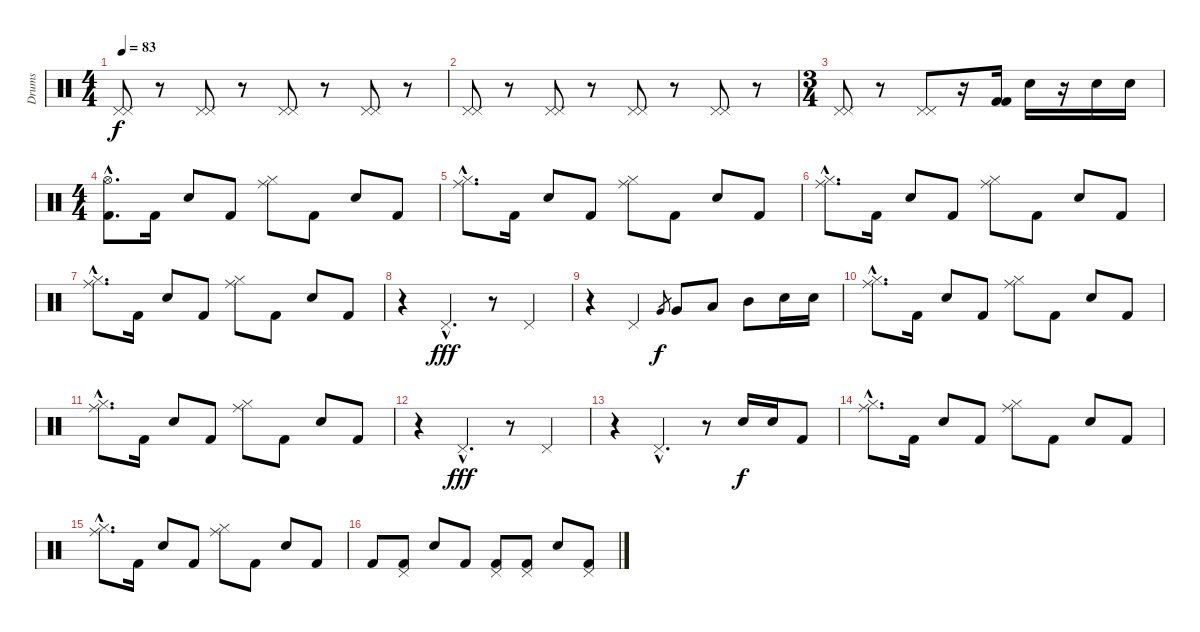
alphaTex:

\track ("Drums" "Drums") {instrument percussion}
\staff {score}
\articulation defaults
\ts (4 4)
\tempo 83
\clef neutral
\ks c
("Pedal Hi-Hat (hit)" "Pedal Hi-Hat (hit)").8{dy f} r.8 ("Pedal Hi-Hat (hit)" "Pedal Hi-Hat (hit)").8 r.8 ("Pedal Hi-Hat (hit)" "Pedal Hi-Hat (hit)").8 r.8 ("Pedal Hi-Hat (hit)" "Pedal Hi-Hat (hit)").8 r.8 |
("Pedal Hi-Hat (hit)" "Pedal Hi-Hat (hit)").8 r.8 ("Pedal Hi-Hat (hit)" "Pedal Hi-Hat (hit)").8 r.8 ("Pedal Hi-Hat (hit)" "Pedal Hi-Hat (hit)").8 r.8 ("Pedal Hi-Hat (hit)" "Pedal Hi-Hat (hit)").8 r.8 |
\ts (3 4)
("Pedal Hi-Hat (hit)" "Pedal Hi-Hat (hit)").8 r.8 ("Pedal Hi-Hat (hit)" "Pedal Hi-Hat (hit)").8 r.16 ("Kick (hit) 2" "Kick (hit) 2").16 "Electric Snare (hit)".16 r.16 "Electric Snare (hit)".16 "Electric Snare (hit)".16 |
\ts (4 4)
("Hi-Hat (open)"{hac} "Kick (hit) 2"{hac}).8{d} "Kick (hit) 2".16 "Electric Snare (hit)".8 "Kick (hit) 2".8 ("Ride (middle)" "Hi-Hat (closed)").8 "Kick (hit) 2".8 "Electric Snare (hit)".8 "Kick (hit) 2".8 |
("Ride (middle)"{hac} "Hi-Hat (closed)"{hac}).8{d} "Kick (hit) 2".16 "Electric Snare (hit)".8 "Kick (hit) 2".8 ("Ride (middle)" "Hi-Hat (closed)").8 "Kick (hit) 2".8 "Electric Snare (hit)".8 "Kick (hit) 2".8 |
("Ride (middle)"{hac} "Hi-Hat (closed)"{hac}).8{d} "Kick (hit) 2".16 "Electric Snare (hit)".8 "Kick (hit) 2".8 ("Ride (middle)" "Hi-Hat (closed)").8 "Kick (hit) 2".8 "Electric Snare (hit)".8 "Kick (hit) 2".8 |
("Ride (middle)"{hac} "Hi-Hat (closed)"{hac}).8{d} "Kick (hit) 2".16 "Electric Snare (hit)".8 "Kick (hit) 2".8 ("Ride (middle)" "Hi-Hat (closed)").8 "Kick (hit) 2".8 "Electric Snare (hit)".8 "Kick (hit) 2".8 |
r.4 "Pedal Hi-Hat (hit)"{hac}.4{d dy fff} r.8 "Pedal Hi-Hat (hit)".4 |
r.4 "Pedal Hi-Hat (hit)".4 "Very Low Tom (hit)".8{gr dy f} "Very Low Tom (hit)".8 "Low Tom (hit)".8 "Mid Tom (hit)".8 "Electric Snare (hit)".16 "Electric Snare (hit)".16 |
("Ride (middle)"{hac} "Hi-Hat (closed)"{hac}).8{d} "Kick (hit) 2".16 "Electric Snare (hit)".8 "Kick (hit) 2".8 ("Ride (middle)" "Hi-Hat (closed)").8 "Kick (hit) 2".8 "Electric Snare (hit)".8 "Kick (hit) 2".8 |
("Ride (middle)"{hac} "Hi-Hat (closed)"{hac}).8{d} "Kick (hit) 2".16 "Electric Snare (hit)".8 "Kick (hit) 2".8 ("Ride (middle)" "Hi-Hat (closed)").8 "Kick (hit) 2".8 "Electric Snare (hit)".8 "Kick (hit) 2".8 |
r.4 "Pedal Hi-Hat (hit)"{hac}.4{d dy fff} r.8 "Pedal Hi-Hat (hit)".4 |
r.4 "Pedal Hi-Hat (hit)"{hac}.4{d} r.8 "Electric Snare (hit)".16{dy f} "Electric Snare (hit)".16 "Kick (hit) 2".8 |
("Ride (middle)"{hac} "Hi-Hat (closed)"{hac}).8{d} "Kick (hit) 2".16 "Electric Snare (hit)".8 "Kick (hit) 2".8 ("Ride (middle)" "Hi-Hat (closed)").8 "Kick (hit) 2".8 "Electric Snare (hit)".8 "Kick (hit) 2".8 |
("Ride (middle)"{hac} "Hi-Hat (closed)"{hac}).8{d} "Kick (hit) 2".16 "Electric Snare (hit)".8 "Kick (hit) 2".8 ("Ride (middle)" "Hi-Hat (closed)").8 "Kick (hit) 2".8 "Electric Snare (hit)".8 "Kick (hit) 2".8 |
"Kick (hit) 2".8 ("Pedal Hi-Hat (hit)" "Kick (hit) 2").8 "Electric Snare (hit)".8 "Kick (hit) 2".8 ("Pedal Hi-Hat (hit)" "Kick (hit) 2").8 ("Pedal Hi-Hat (hit)" "Kick (hit) 2").8 "Electric Snare (hit)".8 ("Pedal Hi-Hat (hit)" "Kick (hit) 2").8
